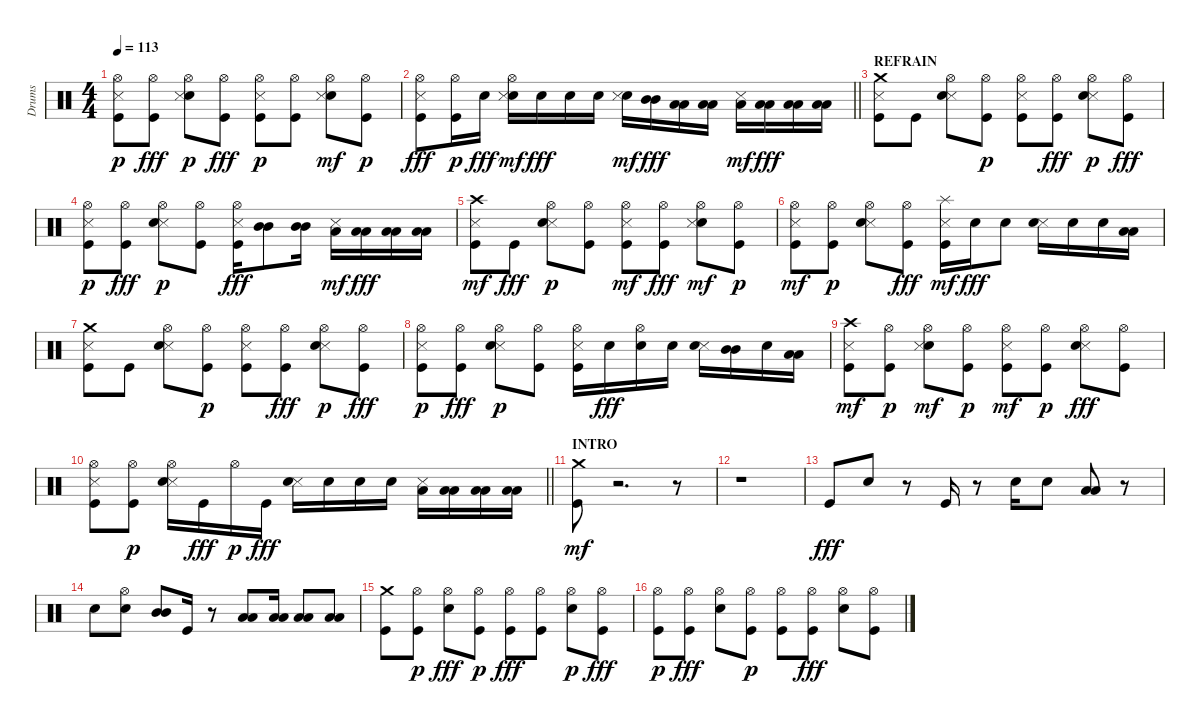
\track ("Drums" "Drums") {instrument percussion}
\staff {score}
\articulation defaults
\ts (4 4)
\tempo 113
\clef neutral
\ks c
("Snare (side stick) 3" "Kick (hit)" "Hi-Hat (open)").8{dy p} ("Hi-Hat (open)" "Kick (hit)").8{dy fff} ("Electric Snare (hit)" "Snare (side stick) 3" "Hi-Hat (open)").8{dy p} ("Hi-Hat (open)" "Kick (hit)").8{dy fff} ("Kick (hit)" "Snare (side stick) 3" "Hi-Hat (open)").8{dy p} ("Kick (hit)" "Hi-Hat (open)").8 ("Electric Snare (hit)" "Hi-Hat (open)" "Snare (side stick) 3").8{dy mf} ("Kick (hit)" "Hi-Hat (open)").8{dy p} |
\barLineRight lightlight
("Snare (side stick) 3" "Hi-Hat (open)" "Kick (hit)").8{dy fff} ("Kick (hit)" "Hi-Hat (open)").16{dy p} "Electric Snare (hit)".16{dy fff} ("Hi-Hat (open)" "Electric Snare (hit)" "Snare (side stick) 3").16{dy mf} "Electric Snare (hit)".16{dy fff} "Electric Snare (hit)".16 "Electric Snare (hit)".16 ("Electric Snare (hit)" "Snare (side stick) 3").16{dy mf} ("Mid Tom (hit)" "Mid Tom (hit)").16{dy fff} ("Low Tom (hit)" "Low Tom (hit)").16 ("Low Tom (hit)" "Low Tom (hit)").16 ("Low Floor Tom (hit)" "Snare (side stick) 3").16{dy mf} ("Low Tom (hit)" "Low Tom (hit)").16{dy fff} ("Low Floor Tom (hit)" "Low Floor Tom (hit)").16 ("Low Floor Tom (hit)" "Low Floor Tom (hit)").16 |
\section ("" "REFRAIN")
("Snare (side stick) 3" "Crash medium (hit)" "Kick (hit)").8 "Kick (hit)".8 ("Snare (side stick) 3" "Hi-Hat (open)" "Electric Snare (hit)").8 ("Kick (hit)" "Hi-Hat (open)").8{dy p} ("Snare (side stick) 3" "Kick (hit)" "Hi-Hat (open)").8 ("Hi-Hat (open)" "Kick (hit)").8{dy fff} ("Snare (side stick) 3" "Electric Snare (hit)" "Hi-Hat (open)").8{dy p} ("Hi-Hat (open)" "Kick (hit)").8{dy fff} |
("Snare (side stick) 3" "Kick (hit)" "Hi-Hat (open)").8{dy p} ("Hi-Hat (open)" "Kick (hit)").8{dy fff} ("Snare (side stick) 3" "Electric Snare (hit)" "Hi-Hat (open)").8{dy p} ("Kick (hit)" "Hi-Hat (open)").8 ("Snare (side stick) 3" "Hi-Hat (open)" "Kick (hit)").16{dy fff} ("Mid Tom (hit)" "Mid Tom (hit)").8 ("Mid Tom (hit)" "Mid Tom (hit)").16 ("Low Tom (hit)" "Snare (side stick) 3").16{dy mf} ("Low Tom (hit)" "Low Tom (hit)").16{dy fff} ("Low Tom (hit)" "Low Tom (hit)").16 ("Low Floor Tom (hit)" "Low Floor Tom (hit)").16 |
("Kick (hit)" "Crash high (hit)" "Snare (side stick) 3").8{dy mf} "Kick (hit)".8{dy fff} ("Snare (side stick) 3" "Electric Snare (hit)" "Hi-Hat (open)").8{dy p} ("Kick (hit)" "Hi-Hat (open)").8 ("Hi-Hat (open)" "Kick (hit)" "Snare (side stick) 3").8{dy mf} ("Hi-Hat (open)" "Kick (hit)").8{dy fff} ("Electric Snare (hit)" "Hi-Hat (open)" "Snare (side stick) 3").8{dy mf} ("Kick (hit)" "Hi-Hat (open)").8{dy p} |
("Hi-Hat (open)" "Kick (hit)" "Snare (side stick) 3").8{dy mf} ("Kick (hit)" "Hi-Hat (open)").8{dy p} ("Snare (side stick) 3" "Electric Snare (hit)" "Hi-Hat (open)").8 ("Hi-Hat (open)" "Kick (hit)").8{dy fff} ("Kick (hit)" "Splash (hit)" "Snare (side stick) 3").16{dy mf} "Electric Snare (hit)".16{dy fff} "Electric Snare (hit)".8 ("Snare (side stick) 3" "Electric Snare (hit)").16 "Electric Snare (hit)".16 "Electric Snare (hit)".16 ("Low Tom (hit)" "Low Tom (hit)").16 |
("Snare (side stick) 3" "Crash medium (hit)" "Kick (hit)").8 "Kick (hit)".8 ("Snare (side stick) 3" "Hi-Hat (open)" "Electric Snare (hit)").8 ("Kick (hit)" "Hi-Hat (open)").8{dy p} ("Snare (side stick) 3" "Kick (hit)" "Hi-Hat (open)").8 ("Hi-Hat (open)" "Kick (hit)").8{dy fff} ("Snare (side stick) 3" "Electric Snare (hit)" "Hi-Hat (open)").8{dy p} ("Hi-Hat (open)" "Kick (hit)").8{dy fff} |
("Snare (side stick) 3" "Kick (hit)" "Hi-Hat (open)").8{dy p} ("Hi-Hat (open)" "Kick (hit)").8{dy fff} ("Snare (side stick) 3" "Electric Snare (hit)" "Hi-Hat (open)").8{dy p} ("Kick (hit)" "Hi-Hat (open)").8 ("Snare (side stick) 3" "Kick (hit)" "Hi-Hat (open)").16 "Electric Snare (hit)".16{dy fff} ("Hi-Hat (open)" "Electric Snare (hit)").16 "Electric Snare (hit)".16 ("Snare (side stick) 3" "Electric Snare (hit)").16 ("Mid Tom (hit)" "Mid Tom (hit)").16 "Electric Snare (hit)".16 ("Low Tom (hit)" "Low Tom (hit)").16 |
("Snare (side stick) 3" "Kick (hit)" "Crash high (hit)").8{dy mf} ("Kick (hit)" "Hi-Hat (open)").8{dy p} ("Electric Snare (hit)" "Hi-Hat (open)" "Snare (side stick) 3").8{dy mf} ("Kick (hit)" "Hi-Hat (open)").8{dy p} ("Kick (hit)" "Hi-Hat (open)" "Snare (side stick) 3").8{dy mf} ("Kick (hit)" "Hi-Hat (open)").8{dy p} ("Snare (side stick) 3" "Hi-Hat (open)" "Electric Snare (hit)").8{dy fff} ("Hi-Hat (open)" "Kick (hit)").8 |
\barLineRight lightlight
("Snare (side stick) 3" "Hi-Hat (open)" "Kick (hit)").8 ("Kick (hit)" "Hi-Hat (open)").8{dy p} ("Snare (side stick) 3" "Electric Snare (hit)" "Hi-Hat (open)").16 "Kick (hit)".16{dy fff} "Hi-Hat (open)".16{dy p} "Kick (hit)".16{dy fff} ("Snare (side stick) 3" "Electric Snare (hit)").16 "Electric Snare (hit)".16 "Electric Snare (hit)".16 "Electric Snare (hit)".16 ("Snare (side stick) 3" "Low Tom (hit)").16 ("Low Tom (hit)" "Low Tom (hit)").16 ("Low Tom (hit)" "Low Tom (hit)").16 ("Low Floor Tom (hit)" "Low Floor Tom (hit)").16 |
\section ("" "INTRO")
("Kick (hit)" "Crash medium (hit)").8{dy mf} r.2{d} r.8 |
r.1 |
"Kick (hit)".8{dy fff} "Electric Snare (hit)".8 r.8 "Kick (hit)".16 r.8 "Electric Snare (hit)".16 "Electric Snare (hit)".8 ("Low Tom (hit)" "Low Tom (hit)").8 r.8 |
"Electric Snare (hit)".8 ("Hi-Hat (open)" "Electric Snare (hit)").8 ("Mid Tom (hit)" "Mid Tom (hit)").8 "Kick (hit)".16 r.8 ("Low Tom (hit)" "Low Tom (hit)").8 ("Low Tom (hit)" "Low Tom (hit)").16 ("Low Floor Tom (hit)" "Low Floor Tom (hit)").8 ("Low Floor Tom (hit)" "Low Floor Tom (hit)").8 |
("Crash medium (hit)" "Kick (hit)").8 ("Kick (hit)" "Hi-Hat (open)").8{dy p} ("Hi-Hat (open)" "Electric Snare (hit)").8{dy fff} ("Kick (hit)" "Hi-Hat (open)").8{dy p} ("Hi-Hat (open)" "Kick (hit)").8{dy fff} ("Hi-Hat (open)" "Kick (hit)").8 ("Electric Snare (hit)" "Hi-Hat (open)").8{dy p} ("Hi-Hat (open)" "Kick (hit)").8{dy fff} |
("Kick (hit)" "Hi-Hat (open)").8{dy p} ("Hi-Hat (open)" "Kick (hit)").8{dy fff} ("Hi-Hat (open)" "Electric Snare (hit)").8 ("Kick (hit)" "Hi-Hat (open)").8{dy p} ("Kick (hit)" "Hi-Hat (open)").8 ("Hi-Hat (open)" "Kick (hit)").8{dy fff} ("Hi-Hat (open)" "Electric Snare (hit)").8 ("Hi-Hat (open)" "Kick (hit)").8
